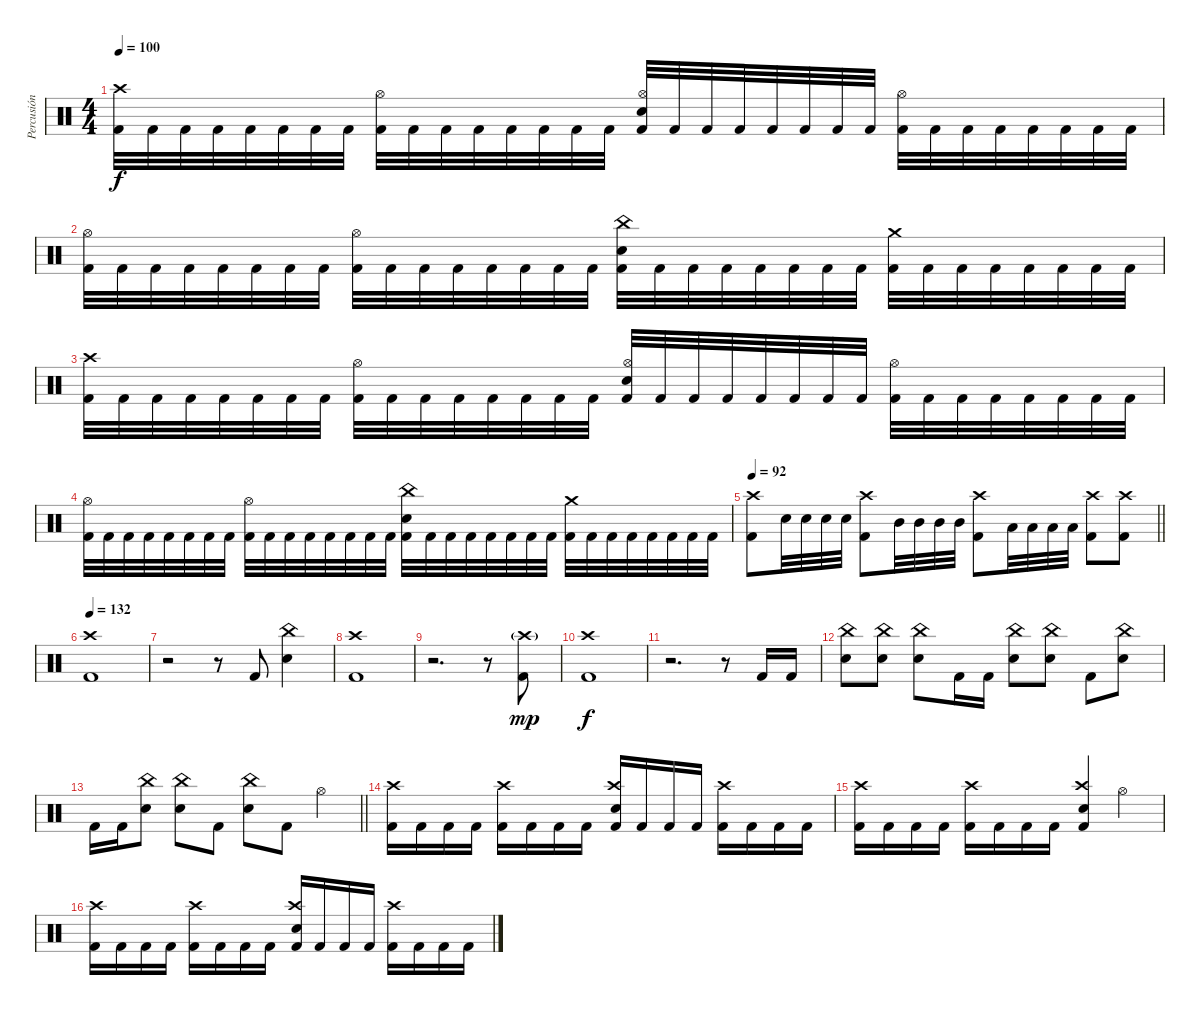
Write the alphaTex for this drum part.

\track ("Percusión" "Percusión") {instrument percussion}
\staff
\articulation defaults
\ts (4 4)
\section ("" "")
\tempo 100
\clef neutral
\ks c
("Kick (hit) 2" "Crash high (hit)").32{dy f} "Kick (hit) 2".32 "Kick (hit) 2".32 "Kick (hit) 2".32 "Kick (hit) 2".32 "Kick (hit) 2".32 "Kick (hit) 2".32 "Kick (hit) 2".32 ("Kick (hit) 2" "Hi-Hat (open)").32 "Kick (hit) 2".32 "Kick (hit) 2".32 "Kick (hit) 2".32 "Kick (hit) 2".32 "Kick (hit) 2".32 "Kick (hit) 2".32 "Kick (hit) 2".32 ("Kick (hit) 2" "Hi-Hat (open)" "Electric Snare (hit)").32 "Kick (hit) 2".32 "Kick (hit) 2".32 "Kick (hit) 2".32 "Kick (hit) 2".32 "Kick (hit) 2".32 "Kick (hit) 2".32 "Kick (hit) 2".32 ("Kick (hit) 2" "Hi-Hat (open)").32 "Kick (hit) 2".32 "Kick (hit) 2".32 "Kick (hit) 2".32 "Kick (hit) 2".32 "Kick (hit) 2".32 "Kick (hit) 2".32 "Kick (hit) 2".32 |
("Kick (hit) 2" "Hi-Hat (open)").32 "Kick (hit) 2".32 "Kick (hit) 2".32 "Kick (hit) 2".32 "Kick (hit) 2".32 "Kick (hit) 2".32 "Kick (hit) 2".32 "Kick (hit) 2".32 ("Kick (hit) 2" "Hi-Hat (open)").32 "Kick (hit) 2".32 "Kick (hit) 2".32 "Kick (hit) 2".32 "Kick (hit) 2".32 "Kick (hit) 2".32 "Kick (hit) 2".32 "Kick (hit) 2".32 ("Kick (hit) 2" "China (hit)" "Electric Snare (hit)").32 "Kick (hit) 2".32 "Kick (hit) 2".32 "Kick (hit) 2".32 "Kick (hit) 2".32 "Kick (hit) 2".32 "Kick (hit) 2".32 "Kick (hit) 2".32 ("Kick (hit) 2" "Crash medium (hit)").32 "Kick (hit) 2".32 "Kick (hit) 2".32 "Kick (hit) 2".32 "Kick (hit) 2".32 "Kick (hit) 2".32 "Kick (hit) 2".32 "Kick (hit) 2".32 |
("Kick (hit) 2" "Crash high (hit)").32 "Kick (hit) 2".32 "Kick (hit) 2".32 "Kick (hit) 2".32 "Kick (hit) 2".32 "Kick (hit) 2".32 "Kick (hit) 2".32 "Kick (hit) 2".32 ("Kick (hit) 2" "Hi-Hat (open)").32 "Kick (hit) 2".32 "Kick (hit) 2".32 "Kick (hit) 2".32 "Kick (hit) 2".32 "Kick (hit) 2".32 "Kick (hit) 2".32 "Kick (hit) 2".32 ("Kick (hit) 2" "Hi-Hat (open)" "Electric Snare (hit)").32 "Kick (hit) 2".32 "Kick (hit) 2".32 "Kick (hit) 2".32 "Kick (hit) 2".32 "Kick (hit) 2".32 "Kick (hit) 2".32 "Kick (hit) 2".32 ("Kick (hit) 2" "Hi-Hat (open)").32 "Kick (hit) 2".32 "Kick (hit) 2".32 "Kick (hit) 2".32 "Kick (hit) 2".32 "Kick (hit) 2".32 "Kick (hit) 2".32 "Kick (hit) 2".32 |
("Kick (hit) 2" "Hi-Hat (open)").32 "Kick (hit) 2".32 "Kick (hit) 2".32 "Kick (hit) 2".32 "Kick (hit) 2".32 "Kick (hit) 2".32 "Kick (hit) 2".32 "Kick (hit) 2".32 ("Kick (hit) 2" "Hi-Hat (open)").32 "Kick (hit) 2".32 "Kick (hit) 2".32 "Kick (hit) 2".32 "Kick (hit) 2".32 "Kick (hit) 2".32 "Kick (hit) 2".32 "Kick (hit) 2".32 ("Kick (hit) 2" "China (hit)" "Electric Snare (hit)").32 "Kick (hit) 2".32 "Kick (hit) 2".32 "Kick (hit) 2".32 "Kick (hit) 2".32 "Kick (hit) 2".32 "Kick (hit) 2".32 "Kick (hit) 2".32 ("Kick (hit) 2" "Crash medium (hit)").32 "Kick (hit) 2".32 "Kick (hit) 2".32 "Kick (hit) 2".32 "Kick (hit) 2".32 "Kick (hit) 2".32 "Kick (hit) 2".32 "Kick (hit) 2".32 |
\tempo 92
\barLineRight lightlight
("Kick (hit) 2" "Crash high (hit)").8 "Snare (hit) 2".32 "Snare (hit) 2".32 "Snare (hit) 2".32 "Snare (hit) 2".32 ("Kick (hit) 2" "Crash high (hit)").8 "Mid Tom (hit)".32 "Mid Tom (hit)".32 "Mid Tom (hit)".32 "Mid Tom (hit)".32 ("Kick (hit) 2" "Crash high (hit)").8 "Low Tom (hit)".32 "Low Tom (hit)".32 "Low Tom (hit)".32 "Low Tom (hit)".32 ("Kick (hit) 2" "Crash high (hit)").8 ("Kick (hit) 2" "Crash high (hit)").8 |
\section ("" "")
\tempo 132
("Kick (hit) 2" "Crash high (hit)").1 |
r.2 r.8 "Kick (hit) 2".8 ("China (hit)" "Electric Snare (hit)").4 |
("Kick (hit) 2" "Crash high (hit)").1 |
r.2{d} r.8 ("Kick (hit) 2" "Crash high (hit)"{g}).8{dy mp} |
("Kick (hit) 2" "Crash high (hit)").1{dy f} |
r.2{d} r.8 "Kick (hit) 2".16 "Kick (hit) 2".16 |
("China (hit)" "Electric Snare (hit)").8 ("China (hit)" "Electric Snare (hit)").8 ("China (hit)" "Electric Snare (hit)").8 "Kick (hit) 2".16 "Kick (hit) 2".16 ("China (hit)" "Electric Snare (hit)").8 ("China (hit)" "Electric Snare (hit)").8 "Kick (hit) 2".8 ("Electric Snare (hit)" "China (hit)").8 |
\barLineRight lightlight "Kick (hit) 2".16 "Kick (hit) 2".16
("China (hit)" "Electric Snare (hit)").8 ("China (hit)" "Electric Snare (hit)").8 "Kick (hit) 2".8 ("Electric Snare (hit)" "China (hit)").8 "Kick (hit) 2".8 "Hi-Hat (open)".4 |
\section ("" "")
("Kick (hit) 2" "Crash high (hit)").16 "Kick (hit) 2".16 "Kick (hit) 2".16 "Kick (hit) 2".16 ("Kick (hit) 2" "Crash high (hit)").16 "Kick (hit) 2".16 "Kick (hit) 2".16 "Kick (hit) 2".16 ("Kick (hit) 2" "Crash high (hit)" "Electric Snare (hit)").16 "Kick (hit) 2".16 "Kick (hit) 2".16 "Kick (hit) 2".16 ("Kick (hit) 2" "Crash high (hit)").16 "Kick (hit) 2".16 "Kick (hit) 2".16 "Kick (hit) 2".16 |
("Kick (hit) 2" "Crash high (hit)").16 "Kick (hit) 2".16 "Kick (hit) 2".16 "Kick (hit) 2".16 ("Kick (hit) 2" "Crash high (hit)").16 "Kick (hit) 2".16 "Kick (hit) 2".16 "Kick (hit) 2".16 ("Kick (hit) 2" "Crash high (hit)" "Electric Snare (hit)").4 "Hi-Hat (open)".4 |
("Kick (hit) 2" "Crash high (hit)").16 "Kick (hit) 2".16 "Kick (hit) 2".16 "Kick (hit) 2".16 ("Kick (hit) 2" "Crash high (hit)").16 "Kick (hit) 2".16 "Kick (hit) 2".16 "Kick (hit) 2".16 ("Kick (hit) 2" "Crash high (hit)" "Electric Snare (hit)").16 "Kick (hit) 2".16 "Kick (hit) 2".16 "Kick (hit) 2".16 ("Kick (hit) 2" "Crash high (hit)").16 "Kick (hit) 2".16 "Kick (hit) 2".16 "Kick (hit) 2".16
